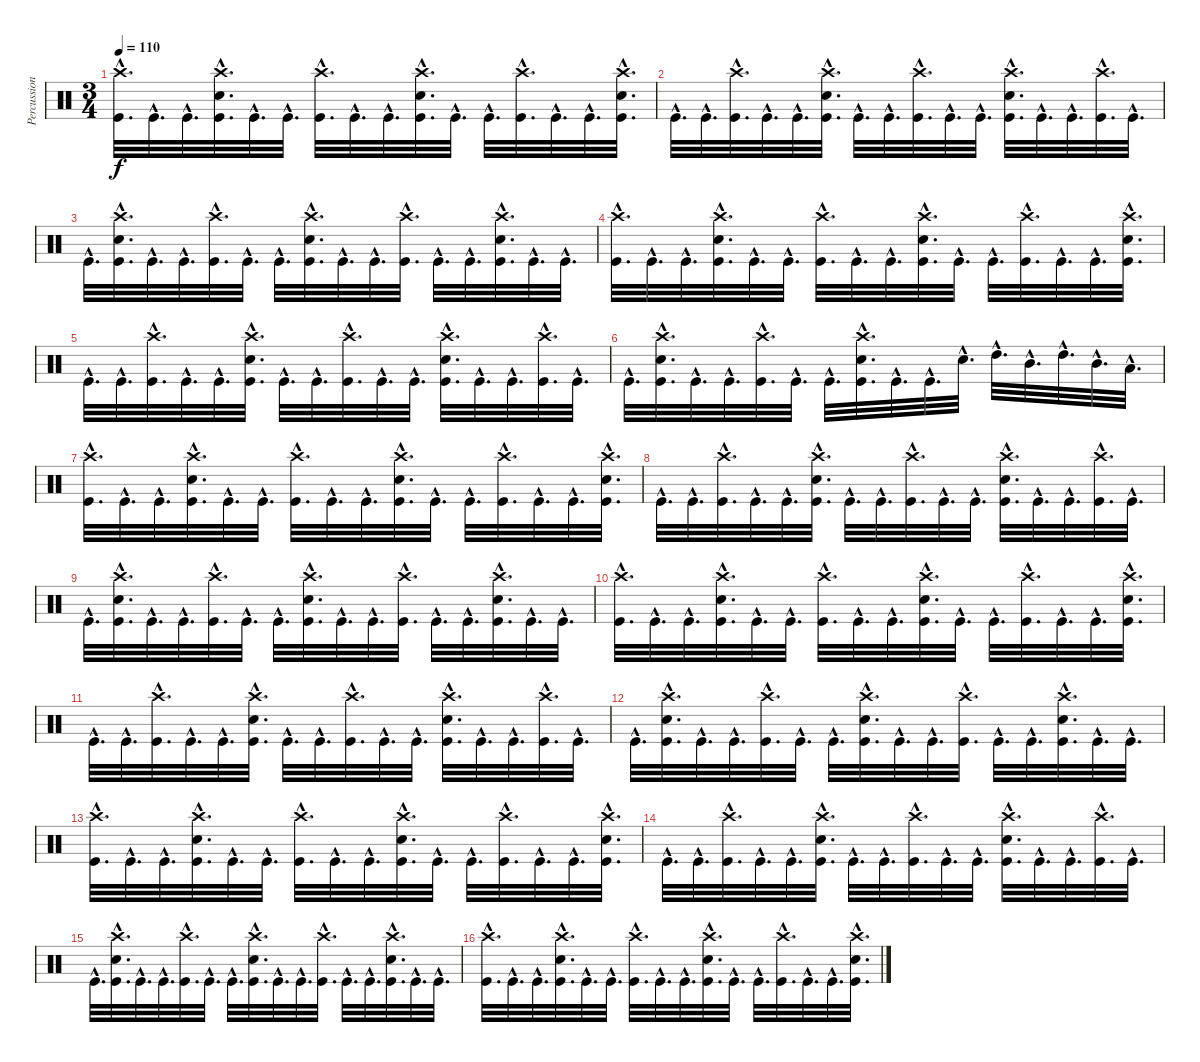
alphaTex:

\track ("Percussion" "Percussion") {instrument percussion}
\staff {score}
\articulation defaults
\ts (3 4)
\tempo 110
\clef neutral
\ks c
("Crash high (hit)"{hac} "Kick (hit)"{hac}).32{d dy f} "Kick (hit)"{hac}.32{d} "Kick (hit)"{hac}.32{d} ("Electric Snare (hit)"{hac} "Crash high (hit)"{hac} "Kick (hit)"{hac}).32{d} "Kick (hit)"{hac}.32{d} "Kick (hit)"{hac}.32{d} ("Crash high (hit)"{hac} "Kick (hit)"{hac}).32{d} "Kick (hit)"{hac}.32{d} "Kick (hit)"{hac}.32{d} ("Electric Snare (hit)"{hac} "Crash high (hit)"{hac} "Kick (hit)"{hac}).32{d} "Kick (hit)"{hac}.32{d} "Kick (hit)"{hac}.32{d} ("Crash high (hit)"{hac} "Kick (hit)"{hac}).32{d} "Kick (hit)"{hac}.32{d} "Kick (hit)"{hac}.32{d} ("Electric Snare (hit)"{hac} "Crash high (hit)"{hac} "Kick (hit)"{hac}).32{d} |
"Kick (hit)"{hac}.32{d} "Kick (hit)"{hac}.32{d} ("Crash high (hit)"{hac} "Kick (hit)"{hac}).32{d} "Kick (hit)"{hac}.32{d} "Kick (hit)"{hac}.32{d} ("Electric Snare (hit)"{hac} "Crash high (hit)"{hac} "Kick (hit)"{hac}).32{d} "Kick (hit)"{hac}.32{d} "Kick (hit)"{hac}.32{d} ("Crash high (hit)"{hac} "Kick (hit)"{hac}).32{d} "Kick (hit)"{hac}.32{d} "Kick (hit)"{hac}.32{d} ("Electric Snare (hit)"{hac} "Crash high (hit)"{hac} "Kick (hit)"{hac}).32{d} "Kick (hit)"{hac}.32{d} "Kick (hit)"{hac}.32{d} ("Crash high (hit)"{hac} "Kick (hit)"{hac}).32{d} "Kick (hit)"{hac}.32{d} |
"Kick (hit)"{hac}.32{d} ("Electric Snare (hit)"{hac} "Crash high (hit)"{hac} "Kick (hit)"{hac}).32{d} "Kick (hit)"{hac}.32{d} "Kick (hit)"{hac}.32{d} ("Crash high (hit)"{hac} "Kick (hit)"{hac}).32{d} "Kick (hit)"{hac}.32{d} "Kick (hit)"{hac}.32{d} ("Electric Snare (hit)"{hac} "Crash high (hit)"{hac} "Kick (hit)"{hac}).32{d} "Kick (hit)"{hac}.32{d} "Kick (hit)"{hac}.32{d} ("Crash high (hit)"{hac} "Kick (hit)"{hac}).32{d} "Kick (hit)"{hac}.32{d} "Kick (hit)"{hac}.32{d} ("Electric Snare (hit)"{hac} "Crash high (hit)"{hac} "Kick (hit)"{hac}).32{d} "Kick (hit)"{hac}.32{d} "Kick (hit)"{hac}.32{d} |
("Crash high (hit)"{hac} "Kick (hit)"{hac}).32{d} "Kick (hit)"{hac}.32{d} "Kick (hit)"{hac}.32{d} ("Electric Snare (hit)"{hac} "Crash high (hit)"{hac} "Kick (hit)"{hac}).32{d} "Kick (hit)"{hac}.32{d} "Kick (hit)"{hac}.32{d} ("Crash high (hit)"{hac} "Kick (hit)"{hac}).32{d} "Kick (hit)"{hac}.32{d} "Kick (hit)"{hac}.32{d} ("Electric Snare (hit)"{hac} "Crash high (hit)"{hac} "Kick (hit)"{hac}).32{d} "Kick (hit)"{hac}.32{d} "Kick (hit)"{hac}.32{d} ("Crash high (hit)"{hac} "Kick (hit)"{hac}).32{d} "Kick (hit)"{hac}.32{d} "Kick (hit)"{hac}.32{d} ("Electric Snare (hit)"{hac} "Crash high (hit)"{hac} "Kick (hit)"{hac}).32{d} |
"Kick (hit)"{hac}.32{d} "Kick (hit)"{hac}.32{d} ("Crash high (hit)"{hac} "Kick (hit)"{hac}).32{d} "Kick (hit)"{hac}.32{d} "Kick (hit)"{hac}.32{d} ("Electric Snare (hit)"{hac} "Crash high (hit)"{hac} "Kick (hit)"{hac}).32{d} "Kick (hit)"{hac}.32{d} "Kick (hit)"{hac}.32{d} ("Crash high (hit)"{hac} "Kick (hit)"{hac}).32{d} "Kick (hit)"{hac}.32{d} "Kick (hit)"{hac}.32{d} ("Electric Snare (hit)"{hac} "Crash high (hit)"{hac} "Kick (hit)"{hac}).32{d} "Kick (hit)"{hac}.32{d} "Kick (hit)"{hac}.32{d} ("Crash high (hit)"{hac} "Kick (hit)"{hac}).32{d} "Kick (hit)"{hac}.32{d} |
"Kick (hit)"{hac}.32{d} ("Electric Snare (hit)"{hac} "Crash high (hit)"{hac} "Kick (hit)"{hac}).32{d} "Kick (hit)"{hac}.32{d} "Kick (hit)"{hac}.32{d} ("Crash high (hit)"{hac} "Kick (hit)"{hac}).32{d} "Kick (hit)"{hac}.32{d} "Kick (hit)"{hac}.32{d} ("Electric Snare (hit)"{hac} "Crash high (hit)"{hac} "Kick (hit)"{hac}).32{d} "Kick (hit)"{hac}.32{d} "Kick (hit)"{hac}.32{d} "Electric Snare (hit)"{hac}.32{d} "High Tom (hit)"{hac}.32{d} "Mid Tom (hit)"{hac}.32{d} "High Tom (hit)"{hac}.32{d} "Mid Tom (hit)"{hac}.32{d} "Low Tom (hit)"{hac}.32{d} |
("Crash high (hit)"{hac} "Kick (hit)"{hac}).32{d} "Kick (hit)"{hac}.32{d} "Kick (hit)"{hac}.32{d} ("Electric Snare (hit)"{hac} "Crash high (hit)"{hac} "Kick (hit)"{hac}).32{d} "Kick (hit)"{hac}.32{d} "Kick (hit)"{hac}.32{d} ("Crash high (hit)"{hac} "Kick (hit)"{hac}).32{d} "Kick (hit)"{hac}.32{d} "Kick (hit)"{hac}.32{d} ("Electric Snare (hit)"{hac} "Crash high (hit)"{hac} "Kick (hit)"{hac}).32{d} "Kick (hit)"{hac}.32{d} "Kick (hit)"{hac}.32{d} ("Crash high (hit)"{hac} "Kick (hit)"{hac}).32{d} "Kick (hit)"{hac}.32{d} "Kick (hit)"{hac}.32{d} ("Electric Snare (hit)"{hac} "Crash high (hit)"{hac} "Kick (hit)"{hac}).32{d} |
"Kick (hit)"{hac}.32{d} "Kick (hit)"{hac}.32{d} ("Crash high (hit)"{hac} "Kick (hit)"{hac}).32{d} "Kick (hit)"{hac}.32{d} "Kick (hit)"{hac}.32{d} ("Electric Snare (hit)"{hac} "Crash high (hit)"{hac} "Kick (hit)"{hac}).32{d} "Kick (hit)"{hac}.32{d} "Kick (hit)"{hac}.32{d} ("Crash high (hit)"{hac} "Kick (hit)"{hac}).32{d} "Kick (hit)"{hac}.32{d} "Kick (hit)"{hac}.32{d} ("Electric Snare (hit)"{hac} "Crash high (hit)"{hac} "Kick (hit)"{hac}).32{d} "Kick (hit)"{hac}.32{d} "Kick (hit)"{hac}.32{d} ("Crash high (hit)"{hac} "Kick (hit)"{hac}).32{d} "Kick (hit)"{hac}.32{d} |
"Kick (hit)"{hac}.32{d} ("Electric Snare (hit)"{hac} "Crash high (hit)"{hac} "Kick (hit)"{hac}).32{d} "Kick (hit)"{hac}.32{d} "Kick (hit)"{hac}.32{d} ("Crash high (hit)"{hac} "Kick (hit)"{hac}).32{d} "Kick (hit)"{hac}.32{d} "Kick (hit)"{hac}.32{d} ("Electric Snare (hit)"{hac} "Crash high (hit)"{hac} "Kick (hit)"{hac}).32{d} "Kick (hit)"{hac}.32{d} "Kick (hit)"{hac}.32{d} ("Crash high (hit)"{hac} "Kick (hit)"{hac}).32{d} "Kick (hit)"{hac}.32{d} "Kick (hit)"{hac}.32{d} ("Electric Snare (hit)"{hac} "Crash high (hit)"{hac} "Kick (hit)"{hac}).32{d} "Kick (hit)"{hac}.32{d} "Kick (hit)"{hac}.32{d} |
("Crash high (hit)"{hac} "Kick (hit)"{hac}).32{d} "Kick (hit)"{hac}.32{d} "Kick (hit)"{hac}.32{d} ("Electric Snare (hit)"{hac} "Crash high (hit)"{hac} "Kick (hit)"{hac}).32{d} "Kick (hit)"{hac}.32{d} "Kick (hit)"{hac}.32{d} ("Crash high (hit)"{hac} "Kick (hit)"{hac}).32{d} "Kick (hit)"{hac}.32{d} "Kick (hit)"{hac}.32{d} ("Electric Snare (hit)"{hac} "Crash high (hit)"{hac} "Kick (hit)"{hac}).32{d} "Kick (hit)"{hac}.32{d} "Kick (hit)"{hac}.32{d} ("Crash high (hit)"{hac} "Kick (hit)"{hac}).32{d} "Kick (hit)"{hac}.32{d} "Kick (hit)"{hac}.32{d} ("Electric Snare (hit)"{hac} "Crash high (hit)"{hac} "Kick (hit)"{hac}).32{d} |
"Kick (hit)"{hac}.32{d} "Kick (hit)"{hac}.32{d} ("Crash high (hit)"{hac} "Kick (hit)"{hac}).32{d} "Kick (hit)"{hac}.32{d} "Kick (hit)"{hac}.32{d} ("Electric Snare (hit)"{hac} "Crash high (hit)"{hac} "Kick (hit)"{hac}).32{d} "Kick (hit)"{hac}.32{d} "Kick (hit)"{hac}.32{d} ("Crash high (hit)"{hac} "Kick (hit)"{hac}).32{d} "Kick (hit)"{hac}.32{d} "Kick (hit)"{hac}.32{d} ("Electric Snare (hit)"{hac} "Crash high (hit)"{hac} "Kick (hit)"{hac}).32{d} "Kick (hit)"{hac}.32{d} "Kick (hit)"{hac}.32{d} ("Crash high (hit)"{hac} "Kick (hit)"{hac}).32{d} "Kick (hit)"{hac}.32{d} |
"Kick (hit)"{hac}.32{d} ("Electric Snare (hit)"{hac} "Crash high (hit)"{hac} "Kick (hit)"{hac}).32{d} "Kick (hit)"{hac}.32{d} "Kick (hit)"{hac}.32{d} ("Crash high (hit)"{hac} "Kick (hit)"{hac}).32{d} "Kick (hit)"{hac}.32{d} "Kick (hit)"{hac}.32{d} ("Electric Snare (hit)"{hac} "Crash high (hit)"{hac} "Kick (hit)"{hac}).32{d} "Kick (hit)"{hac}.32{d} "Kick (hit)"{hac}.32{d} ("Crash high (hit)"{hac} "Kick (hit)"{hac}).32{d} "Kick (hit)"{hac}.32{d} "Kick (hit)"{hac}.32{d} ("Electric Snare (hit)"{hac} "Crash high (hit)"{hac} "Kick (hit)"{hac}).32{d} "Kick (hit)"{hac}.32{d} "Kick (hit)"{hac}.32{d} |
("Crash high (hit)"{hac} "Kick (hit)"{hac}).32{d} "Kick (hit)"{hac}.32{d} "Kick (hit)"{hac}.32{d} ("Electric Snare (hit)"{hac} "Crash high (hit)"{hac} "Kick (hit)"{hac}).32{d} "Kick (hit)"{hac}.32{d} "Kick (hit)"{hac}.32{d} ("Crash high (hit)"{hac} "Kick (hit)"{hac}).32{d} "Kick (hit)"{hac}.32{d} "Kick (hit)"{hac}.32{d} ("Electric Snare (hit)"{hac} "Crash high (hit)"{hac} "Kick (hit)"{hac}).32{d} "Kick (hit)"{hac}.32{d} "Kick (hit)"{hac}.32{d} ("Crash high (hit)"{hac} "Kick (hit)"{hac}).32{d} "Kick (hit)"{hac}.32{d} "Kick (hit)"{hac}.32{d} ("Electric Snare (hit)"{hac} "Crash high (hit)"{hac} "Kick (hit)"{hac}).32{d} |
"Kick (hit)"{hac}.32{d} "Kick (hit)"{hac}.32{d} ("Crash high (hit)"{hac} "Kick (hit)"{hac}).32{d} "Kick (hit)"{hac}.32{d} "Kick (hit)"{hac}.32{d} ("Electric Snare (hit)"{hac} "Crash high (hit)"{hac} "Kick (hit)"{hac}).32{d} "Kick (hit)"{hac}.32{d} "Kick (hit)"{hac}.32{d} ("Crash high (hit)"{hac} "Kick (hit)"{hac}).32{d} "Kick (hit)"{hac}.32{d} "Kick (hit)"{hac}.32{d} ("Electric Snare (hit)"{hac} "Crash high (hit)"{hac} "Kick (hit)"{hac}).32{d} "Kick (hit)"{hac}.32{d} "Kick (hit)"{hac}.32{d} ("Crash high (hit)"{hac} "Kick (hit)"{hac}).32{d} "Kick (hit)"{hac}.32{d} |
"Kick (hit)"{hac}.32{d} ("Electric Snare (hit)"{hac} "Crash high (hit)"{hac} "Kick (hit)"{hac}).32{d} "Kick (hit)"{hac}.32{d} "Kick (hit)"{hac}.32{d} ("Crash high (hit)"{hac} "Kick (hit)"{hac}).32{d} "Kick (hit)"{hac}.32{d} "Kick (hit)"{hac}.32{d} ("Electric Snare (hit)"{hac} "Crash high (hit)"{hac} "Kick (hit)"{hac}).32{d} "Kick (hit)"{hac}.32{d} "Kick (hit)"{hac}.32{d} ("Crash high (hit)"{hac} "Kick (hit)"{hac}).32{d} "Kick (hit)"{hac}.32{d} "Kick (hit)"{hac}.32{d} ("Electric Snare (hit)"{hac} "Crash high (hit)"{hac} "Kick (hit)"{hac}).32{d} "Kick (hit)"{hac}.32{d} "Kick (hit)"{hac}.32{d} |
("Crash high (hit)"{hac} "Kick (hit)"{hac}).32{d} "Kick (hit)"{hac}.32{d} "Kick (hit)"{hac}.32{d} ("Electric Snare (hit)"{hac} "Crash high (hit)"{hac} "Kick (hit)"{hac}).32{d} "Kick (hit)"{hac}.32{d} "Kick (hit)"{hac}.32{d} ("Crash high (hit)"{hac} "Kick (hit)"{hac}).32{d} "Kick (hit)"{hac}.32{d} "Kick (hit)"{hac}.32{d} ("Electric Snare (hit)"{hac} "Crash high (hit)"{hac} "Kick (hit)"{hac}).32{d} "Kick (hit)"{hac}.32{d} "Kick (hit)"{hac}.32{d} ("Crash high (hit)"{hac} "Kick (hit)"{hac}).32{d} "Kick (hit)"{hac}.32{d} "Kick (hit)"{hac}.32{d} ("Electric Snare (hit)"{hac} "Crash high (hit)"{hac} "Kick (hit)"{hac}).32{d}
